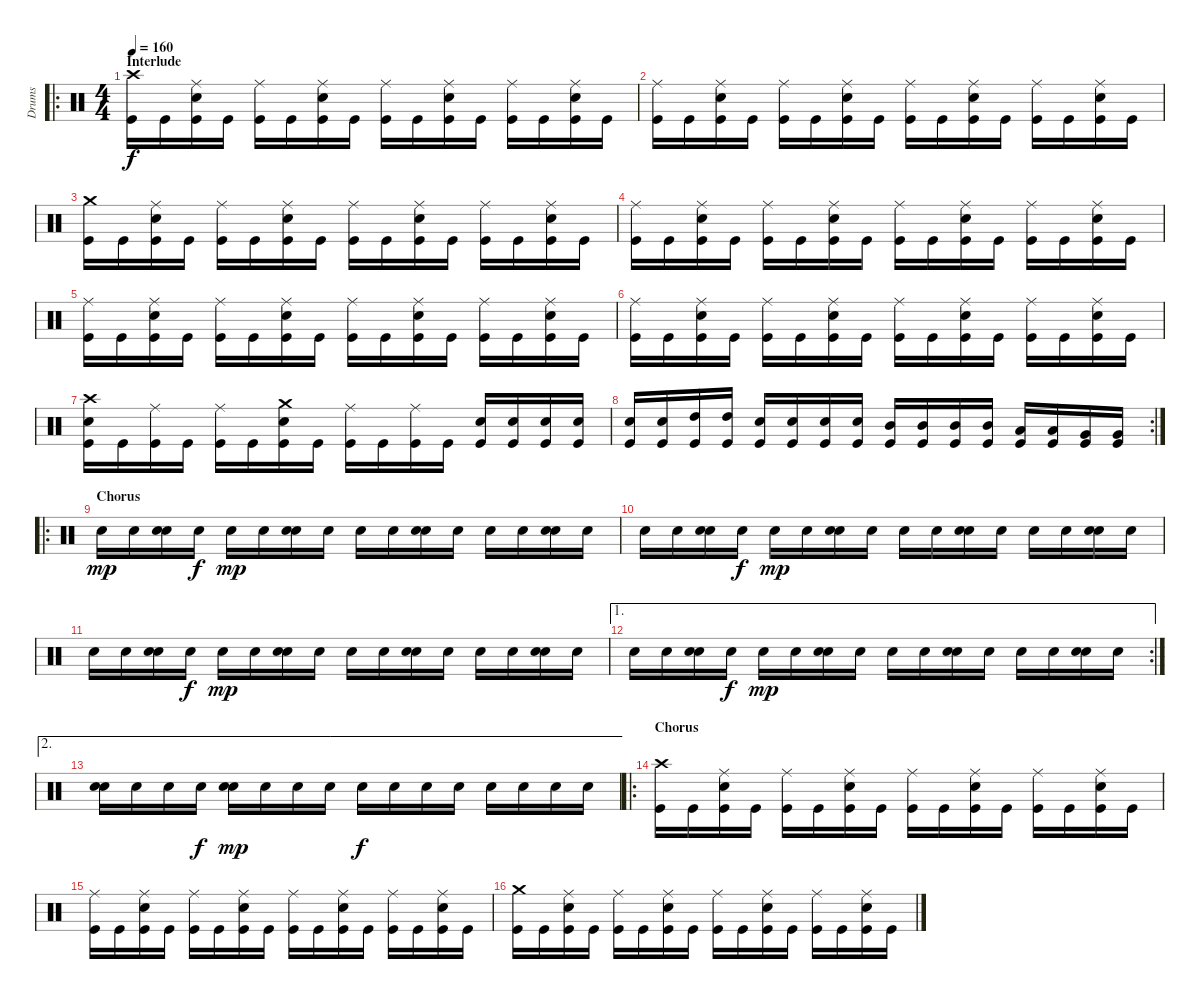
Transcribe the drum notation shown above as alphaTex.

\track ("Drums" "Drums") {instrument percussion}
\staff {score}
\articulation defaults
\ro
\ts (4 4)
\section ("" "Interlude")
\tempo 160
\clef neutral
\ks c
("Crash high (hit)" "Kick (hit)").16{dy f} "Kick (hit)".16 ("Ride (middle)" "Electric Snare (hit)" "Kick (hit)").16 "Kick (hit)".16 ("Ride (middle)" "Kick (hit)").16 "Kick (hit)".16 ("Ride (middle)" "Electric Snare (hit)" "Kick (hit)").16 "Kick (hit)".16 ("Ride (middle)" "Kick (hit)").16 "Kick (hit)".16 ("Ride (middle)" "Electric Snare (hit)" "Kick (hit)").16 "Kick (hit)".16 ("Ride (middle)" "Kick (hit)").16 "Kick (hit)".16 ("Ride (middle)" "Electric Snare (hit)" "Kick (hit)").16 "Kick (hit)".16 |
("Ride (middle)" "Kick (hit)").16 "Kick (hit)".16 ("Ride (middle)" "Electric Snare (hit)" "Kick (hit)").16 "Kick (hit)".16 ("Ride (middle)" "Kick (hit)").16 "Kick (hit)".16 ("Ride (middle)" "Electric Snare (hit)" "Kick (hit)").16 "Kick (hit)".16 ("Ride (middle)" "Kick (hit)").16 "Kick (hit)".16 ("Ride (middle)" "Electric Snare (hit)" "Kick (hit)").16 "Kick (hit)".16 ("Ride (middle)" "Kick (hit)").16 "Kick (hit)".16 ("Ride (middle)" "Electric Snare (hit)" "Kick (hit)").16 "Kick (hit)".16 |
("Crash medium (hit)" "Kick (hit)").16 "Kick (hit)".16 ("Ride (middle)" "Electric Snare (hit)" "Kick (hit)").16 "Kick (hit)".16 ("Ride (middle)" "Kick (hit)").16 "Kick (hit)".16 ("Ride (middle)" "Electric Snare (hit)" "Kick (hit)").16 "Kick (hit)".16 ("Ride (middle)" "Kick (hit)").16 "Kick (hit)".16 ("Ride (middle)" "Electric Snare (hit)" "Kick (hit)").16 "Kick (hit)".16 ("Ride (middle)" "Kick (hit)").16 "Kick (hit)".16 ("Ride (middle)" "Electric Snare (hit)" "Kick (hit)").16 "Kick (hit)".16 |
("Ride (middle)" "Kick (hit)").16 "Kick (hit)".16 ("Ride (middle)" "Electric Snare (hit)" "Kick (hit)").16 "Kick (hit)".16 ("Ride (middle)" "Kick (hit)").16 "Kick (hit)".16 ("Ride (middle)" "Electric Snare (hit)" "Kick (hit)").16 "Kick (hit)".16 ("Ride (middle)" "Kick (hit)").16 "Kick (hit)".16 ("Ride (middle)" "Electric Snare (hit)" "Kick (hit)").16 "Kick (hit)".16 ("Ride (middle)" "Kick (hit)").16 "Kick (hit)".16 ("Ride (middle)" "Electric Snare (hit)" "Kick (hit)").16 "Kick (hit)".16 |
("Ride (middle)" "Kick (hit)").16 "Kick (hit)".16 ("Ride (middle)" "Electric Snare (hit)" "Kick (hit)").16 "Kick (hit)".16 ("Ride (middle)" "Kick (hit)").16 "Kick (hit)".16 ("Ride (middle)" "Electric Snare (hit)" "Kick (hit)").16 "Kick (hit)".16 ("Ride (middle)" "Kick (hit)").16 "Kick (hit)".16 ("Ride (middle)" "Electric Snare (hit)" "Kick (hit)").16 "Kick (hit)".16 ("Ride (middle)" "Kick (hit)").16 "Kick (hit)".16 ("Ride (middle)" "Electric Snare (hit)" "Kick (hit)").16 "Kick (hit)".16 |
("Ride (middle)" "Kick (hit)").16 "Kick (hit)".16 ("Ride (middle)" "Electric Snare (hit)" "Kick (hit)").16 "Kick (hit)".16 ("Ride (middle)" "Kick (hit)").16 "Kick (hit)".16 ("Ride (middle)" "Electric Snare (hit)" "Kick (hit)").16 "Kick (hit)".16 ("Ride (middle)" "Kick (hit)").16 "Kick (hit)".16 ("Ride (middle)" "Electric Snare (hit)" "Kick (hit)").16 "Kick (hit)".16 ("Ride (middle)" "Kick (hit)").16 "Kick (hit)".16 ("Ride (middle)" "Electric Snare (hit)" "Kick (hit)").16 "Kick (hit)".16 |
("Crash high (hit)" "Electric Snare (hit)" "Kick (hit)").16 "Kick (hit)".16 ("Ride (middle)" "Kick (hit)").16 "Kick (hit)".16 ("Ride (middle)" "Kick (hit)").16 "Kick (hit)".16 ("Crash medium (hit)" "Electric Snare (hit)" "Kick (hit)").16 "Kick (hit)".16 ("Ride (middle)" "Kick (hit)").16 "Kick (hit)".16 ("Ride (middle)" "Kick (hit)").16 "Kick (hit)".16 ("Electric Snare (hit)" "Kick (hit)").16 ("Electric Snare (hit)" "Kick (hit)").16 ("Electric Snare (hit)" "Kick (hit)").16 ("Electric Snare (hit)" "Kick (hit)").16 |
\rc 2
("Electric Snare (hit)" "Kick (hit)").16 ("Electric Snare (hit)" "Kick (hit)").16 ("High Tom (hit)" "Kick (hit)").16 ("High Tom (hit)" "Kick (hit)").16 ("Electric Snare (hit)" "Kick (hit)").16 ("Electric Snare (hit)" "Kick (hit)").16 ("Electric Snare (hit)" "Kick (hit)").16 ("Electric Snare (hit)" "Kick (hit)").16 ("Mid Tom (hit)" "Kick (hit)").16 ("Mid Tom (hit)" "Kick (hit)").16 ("Mid Tom (hit)" "Kick (hit)").16 ("Mid Tom (hit)" "Kick (hit)").16 ("Low Tom (hit)" "Kick (hit)").16 ("Low Tom (hit)" "Kick (hit)").16 ("Very Low Tom (hit)" "Kick (hit)").16 ("Very Low Tom (hit)" "Kick (hit)").16 |
\ro
\section ("" "Chorus")
"Snare (hit) 2".16{dy mp} "Snare (hit) 2".16 ("Electric Snare (hit)" "Snare (hit) 2").16 "Snare (hit) 2".16{dy f} "Snare (hit) 2".16{dy mp} "Snare (hit) 2".16 ("Electric Snare (hit)" "Snare (hit) 2").16 "Snare (hit) 2".16 "Snare (hit) 2".16 "Snare (hit) 2".16 ("Electric Snare (hit)" "Snare (hit) 2").16 "Snare (hit) 2".16 "Snare (hit) 2".16 "Snare (hit) 2".16 ("Electric Snare (hit)" "Snare (hit) 2").16 "Snare (hit) 2".16 |
"Snare (hit) 2".16 "Snare (hit) 2".16 ("Electric Snare (hit)" "Snare (hit) 2").16 "Snare (hit) 2".16{dy f} "Snare (hit) 2".16{dy mp} "Snare (hit) 2".16 ("Electric Snare (hit)" "Snare (hit) 2").16 "Snare (hit) 2".16 "Snare (hit) 2".16 "Snare (hit) 2".16 ("Electric Snare (hit)" "Snare (hit) 2").16 "Snare (hit) 2".16 "Snare (hit) 2".16 "Snare (hit) 2".16 ("Electric Snare (hit)" "Snare (hit) 2").16 "Snare (hit) 2".16 |
"Snare (hit) 2".16 "Snare (hit) 2".16 ("Electric Snare (hit)" "Snare (hit) 2").16 "Snare (hit) 2".16{dy f} "Snare (hit) 2".16{dy mp} "Snare (hit) 2".16 ("Electric Snare (hit)" "Snare (hit) 2").16 "Snare (hit) 2".16 "Snare (hit) 2".16 "Snare (hit) 2".16 ("Electric Snare (hit)" "Snare (hit) 2").16 "Snare (hit) 2".16 "Snare (hit) 2".16 "Snare (hit) 2".16 ("Electric Snare (hit)" "Snare (hit) 2").16 "Snare (hit) 2".16 |
\ae 1
\rc 2 "Snare (hit) 2".16 "Snare (hit) 2".16
("Electric Snare (hit)" "Snare (hit) 2").16 "Snare (hit) 2".16{dy f} "Snare (hit) 2".16{dy mp} "Snare (hit) 2".16 ("Electric Snare (hit)" "Snare (hit) 2").16 "Snare (hit) 2".16 "Snare (hit) 2".16 "Snare (hit) 2".16 ("Electric Snare (hit)" "Snare (hit) 2").16 "Snare (hit) 2".16 "Snare (hit) 2".16 "Snare (hit) 2".16 ("Electric Snare (hit)" "Snare (hit) 2").16 "Snare (hit) 2".16 |
\ae 2
("Electric Snare (hit)" "Snare (hit) 2").16 "Snare (hit) 2".16 "Snare (hit) 2".16 "Snare (hit) 2".16{dy f} ("Electric Snare (hit)" "Snare (hit) 2").16{dy mp} "Snare (hit) 2".16 "Snare (hit) 2".16 "Snare (hit) 2".16 "Electric Snare (hit)".16{dy f} "Electric Snare (hit)".16 "Electric Snare (hit)".16 "Electric Snare (hit)".16 "Electric Snare (hit)".16 "Electric Snare (hit)".16 "Electric Snare (hit)".16 "Electric Snare (hit)".16 |
\ro
\section ("" "Chorus")
("Crash high (hit)" "Kick (hit)").16 "Kick (hit)".16 ("Ride (middle)" "Electric Snare (hit)" "Kick (hit)").16 "Kick (hit)".16 ("Ride (middle)" "Kick (hit)").16 "Kick (hit)".16 ("Ride (middle)" "Electric Snare (hit)" "Kick (hit)").16 "Kick (hit)".16 ("Ride (middle)" "Kick (hit)").16 "Kick (hit)".16 ("Ride (middle)" "Electric Snare (hit)" "Kick (hit)").16 "Kick (hit)".16 ("Ride (middle)" "Kick (hit)").16 "Kick (hit)".16 ("Ride (middle)" "Electric Snare (hit)" "Kick (hit)").16 "Kick (hit)".16 |
("Ride (middle)" "Kick (hit)").16 "Kick (hit)".16 ("Ride (middle)" "Electric Snare (hit)" "Kick (hit)").16 "Kick (hit)".16 ("Ride (middle)" "Kick (hit)").16 "Kick (hit)".16 ("Ride (middle)" "Electric Snare (hit)" "Kick (hit)").16 "Kick (hit)".16 ("Ride (middle)" "Kick (hit)").16 "Kick (hit)".16 ("Ride (middle)" "Electric Snare (hit)" "Kick (hit)").16 "Kick (hit)".16 ("Ride (middle)" "Kick (hit)").16 "Kick (hit)".16 ("Ride (middle)" "Electric Snare (hit)" "Kick (hit)").16 "Kick (hit)".16 |
("Crash medium (hit)" "Kick (hit)").16 "Kick (hit)".16 ("Ride (middle)" "Electric Snare (hit)" "Kick (hit)").16 "Kick (hit)".16 ("Ride (middle)" "Kick (hit)").16 "Kick (hit)".16 ("Ride (middle)" "Electric Snare (hit)" "Kick (hit)").16 "Kick (hit)".16 ("Ride (middle)" "Kick (hit)").16 "Kick (hit)".16 ("Ride (middle)" "Electric Snare (hit)" "Kick (hit)").16 "Kick (hit)".16 ("Ride (middle)" "Kick (hit)").16 "Kick (hit)".16 ("Ride (middle)" "Electric Snare (hit)" "Kick (hit)").16 "Kick (hit)".16
